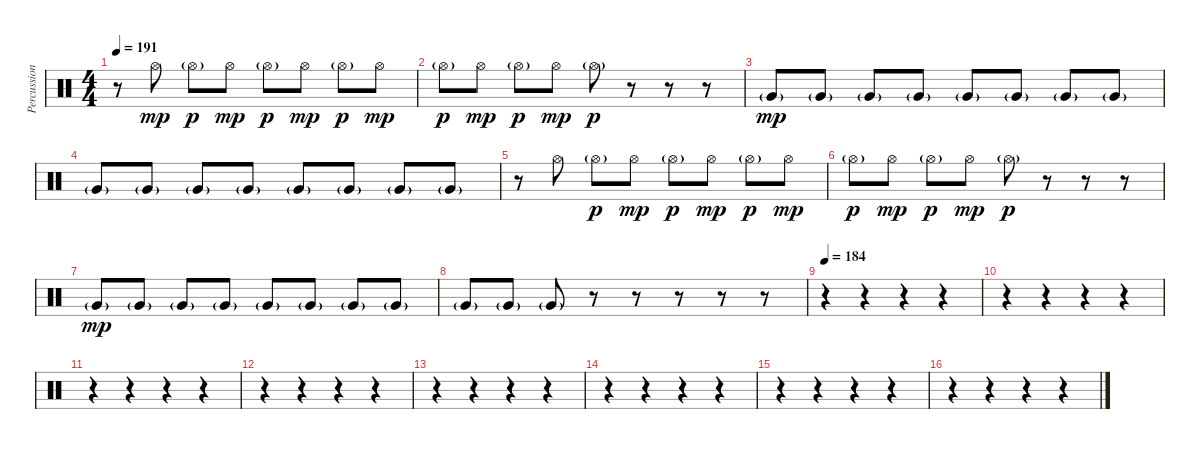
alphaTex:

\track ("Percussion2" "Percussion") {instrument percussion}
\staff {score}
\articulation defaults
\ts (4 4)
\tempo 191
\clef neutral
\ks c
r.8{dy mp} "Hi-Hat (open)".8 "Hi-Hat (open)"{g}.8{dy p} "Hi-Hat (open)".8{dy mp} "Hi-Hat (open)"{g}.8{dy p} "Hi-Hat (open)".8{dy mp} "Hi-Hat (open)"{g}.8{dy p} "Hi-Hat (open)".8{dy mp} |
"Hi-Hat (open)"{g}.8{dy p} "Hi-Hat (open)".8{dy mp} "Hi-Hat (open)"{g}.8{dy p} "Hi-Hat (open)".8{dy mp} "Hi-Hat (open)"{g}.8{dy p} r.8 r.8 r.8 |
"Very Low Tom (hit)"{g}.8{dy mp} "Very Low Tom (hit)"{g}.8 "Very Low Tom (hit)"{g}.8 "Very Low Tom (hit)"{g}.8 "Very Low Tom (hit)"{g}.8 "Very Low Tom (hit)"{g}.8 "Very Low Tom (hit)"{g}.8 "Very Low Tom (hit)"{g}.8 |
"Very Low Tom (hit)"{g}.8 "Very Low Tom (hit)"{g}.8 "Very Low Tom (hit)"{g}.8 "Very Low Tom (hit)"{g}.8 "Very Low Tom (hit)"{g}.8 "Very Low Tom (hit)"{g}.8 "Very Low Tom (hit)"{g}.8 "Very Low Tom (hit)"{g}.8 |
r.8 "Hi-Hat (open)".8 "Hi-Hat (open)"{g}.8{dy p} "Hi-Hat (open)".8{dy mp} "Hi-Hat (open)"{g}.8{dy p} "Hi-Hat (open)".8{dy mp} "Hi-Hat (open)"{g}.8{dy p} "Hi-Hat (open)".8{dy mp} |
"Hi-Hat (open)"{g}.8{dy p} "Hi-Hat (open)".8{dy mp} "Hi-Hat (open)"{g}.8{dy p} "Hi-Hat (open)".8{dy mp} "Hi-Hat (open)"{g}.8{dy p} r.8 r.8 r.8 |
"Very Low Tom (hit)"{g}.8{dy mp} "Very Low Tom (hit)"{g}.8 "Very Low Tom (hit)"{g}.8 "Very Low Tom (hit)"{g}.8 "Very Low Tom (hit)"{g}.8 "Very Low Tom (hit)"{g}.8 "Very Low Tom (hit)"{g}.8 "Very Low Tom (hit)"{g}.8 |
"Very Low Tom (hit)"{g}.8 "Very Low Tom (hit)"{g}.8 "Very Low Tom (hit)"{g}.8 r.8 r.8 r.8 r.8 r.8 |
\tempo 184
r.4 r.4 r.4 r.4 |
r.4 r.4 r.4 r.4 |
r.4 r.4 r.4 r.4 |
r.4 r.4 r.4 r.4 |
r.4 r.4 r.4 r.4 |
r.4 r.4 r.4 r.4 |
r.4 r.4 r.4 r.4 |
r.4 r.4 r.4 r.4
